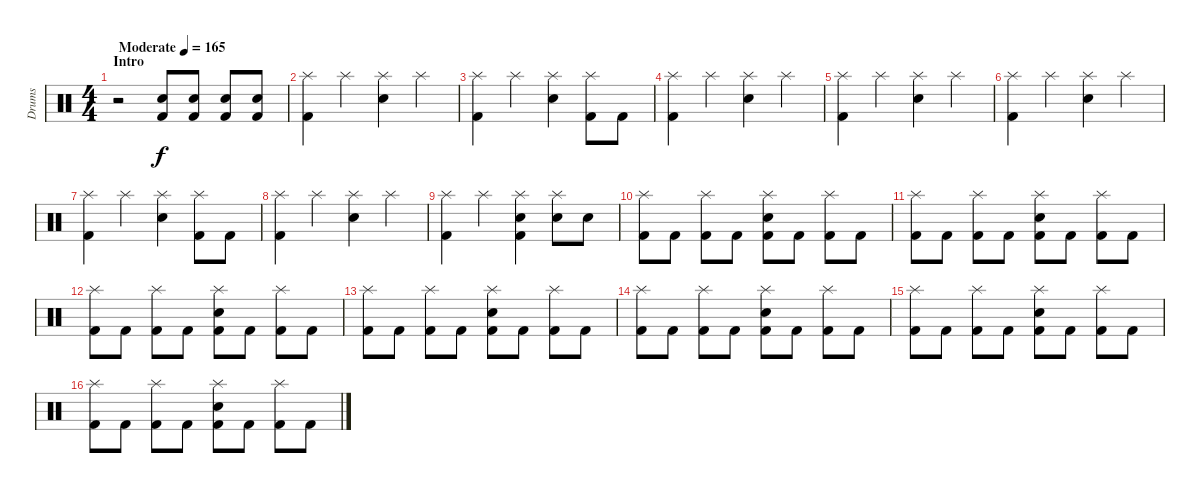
\track ("Drums" "Drums") {instrument percussion}
\staff {score}
\articulation defaults
\ts (4 4)
\section ("" "Intro")
\tempo (165 "Moderate")
\clef neutral
\ks c
r.2{dy f} ("Kick (hit) 2" "Snare (hit) 2").8 ("Kick (hit) 2" "Snare (hit) 2").8 ("Kick (hit) 2" "Snare (hit) 2").8 ("Kick (hit) 2" "Snare (hit) 2").8 |
("Kick (hit) 2" "Splash (hit)").4 "Splash (hit)".4 ("Snare (hit) 2" "Splash (hit)").4 "Splash (hit)".4 |
("Kick (hit) 2" "Splash (hit)").4 "Splash (hit)".4 ("Snare (hit) 2" "Splash (hit)").4 ("Kick (hit) 2" "Splash (hit)").8 "Kick (hit) 2".8 |
("Kick (hit) 2" "Splash (hit)").4 "Splash (hit)".4 ("Snare (hit) 2" "Splash (hit)").4 "Splash (hit)".4 |
("Kick (hit) 2" "Splash (hit)").4 "Splash (hit)".4 ("Snare (hit) 2" "Splash (hit)").4 "Splash (hit)".4 |
("Kick (hit) 2" "Splash (hit)").4 "Splash (hit)".4 ("Snare (hit) 2" "Splash (hit)").4 "Splash (hit)".4 |
("Kick (hit) 2" "Splash (hit)").4 "Splash (hit)".4 ("Snare (hit) 2" "Splash (hit)").4 ("Kick (hit) 2" "Splash (hit)").8 "Kick (hit) 2".8 |
("Kick (hit) 2" "Splash (hit)").4 "Splash (hit)".4 ("Snare (hit) 2" "Splash (hit)").4 "Splash (hit)".4 |
("Kick (hit) 2" "Splash (hit)").4 "Splash (hit)".4 ("Snare (hit) 2" "Kick (hit) 2" "Splash (hit)").4 ("Snare (hit) 2" "Splash (hit)").8 "Snare (hit) 2".8 |
("Kick (hit) 2" "Splash (hit)").8 "Kick (hit) 2".8 ("Kick (hit) 2" "Splash (hit)").8 "Kick (hit) 2".8 ("Snare (hit) 2" "Kick (hit) 2" "Splash (hit)").8 "Kick (hit) 2".8 ("Kick (hit) 2" "Splash (hit)").8 "Kick (hit) 2".8 |
("Kick (hit) 2" "Splash (hit)").8 "Kick (hit) 2".8 ("Kick (hit) 2" "Splash (hit)").8 "Kick (hit) 2".8 ("Snare (hit) 2" "Kick (hit) 2" "Splash (hit)").8 "Kick (hit) 2".8 ("Kick (hit) 2" "Splash (hit)").8 "Kick (hit) 2".8 |
("Kick (hit) 2" "Splash (hit)").8 "Kick (hit) 2".8 ("Kick (hit) 2" "Splash (hit)").8 "Kick (hit) 2".8 ("Snare (hit) 2" "Kick (hit) 2" "Splash (hit)").8 "Kick (hit) 2".8 ("Kick (hit) 2" "Splash (hit)").8 "Kick (hit) 2".8 |
("Kick (hit) 2" "Splash (hit)").8 "Kick (hit) 2".8 ("Kick (hit) 2" "Splash (hit)").8 "Kick (hit) 2".8 ("Snare (hit) 2" "Kick (hit) 2" "Splash (hit)").8 "Kick (hit) 2".8 ("Kick (hit) 2" "Splash (hit)").8 "Kick (hit) 2".8 |
("Kick (hit) 2" "Splash (hit)").8 "Kick (hit) 2".8 ("Kick (hit) 2" "Splash (hit)").8 "Kick (hit) 2".8 ("Snare (hit) 2" "Kick (hit) 2" "Splash (hit)").8 "Kick (hit) 2".8 ("Kick (hit) 2" "Splash (hit)").8 "Kick (hit) 2".8 |
("Kick (hit) 2" "Splash (hit)").8 "Kick (hit) 2".8 ("Kick (hit) 2" "Splash (hit)").8 "Kick (hit) 2".8 ("Snare (hit) 2" "Kick (hit) 2" "Splash (hit)").8 "Kick (hit) 2".8 ("Kick (hit) 2" "Splash (hit)").8 "Kick (hit) 2".8 |
("Kick (hit) 2" "Splash (hit)").8 "Kick (hit) 2".8 ("Kick (hit) 2" "Splash (hit)").8 "Kick (hit) 2".8 ("Snare (hit) 2" "Kick (hit) 2" "Splash (hit)").8 "Kick (hit) 2".8 ("Kick (hit) 2" "Splash (hit)").8 "Kick (hit) 2".8
